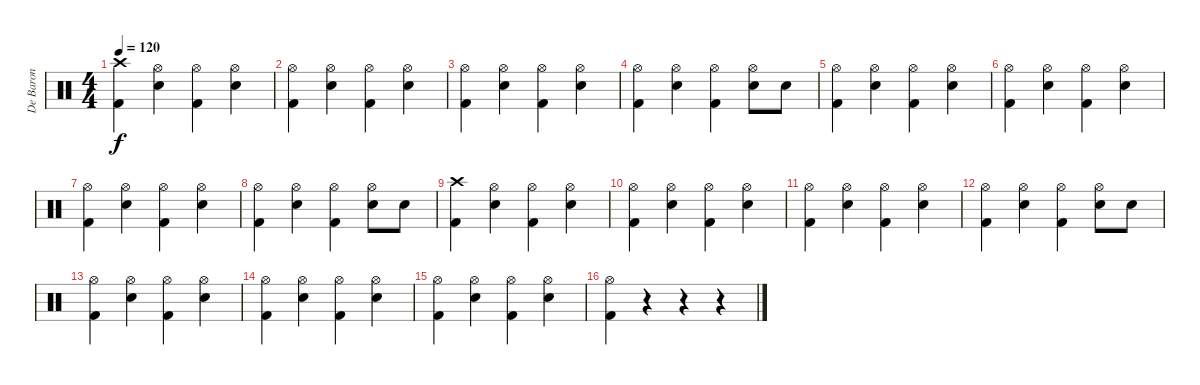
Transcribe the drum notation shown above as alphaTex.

\track ("De Baron" "De Baron") {instrument percussion}
\staff {score}
\articulation defaults
\ts (4 4)
\tempo 120
\clef neutral
\ks c
("Crash high (hit)" "Kick (hit) 2").4{dy f} ("Hi-Hat (open)" "Snare (hit) 2").4 ("Hi-Hat (open)" "Kick (hit) 2").4 ("Hi-Hat (open)" "Snare (hit) 2").4 |
("Hi-Hat (open)" "Kick (hit) 2").4 ("Hi-Hat (open)" "Snare (hit) 2").4 ("Hi-Hat (open)" "Kick (hit) 2").4 ("Hi-Hat (open)" "Snare (hit) 2").4 |
("Hi-Hat (open)" "Kick (hit) 2").4 ("Hi-Hat (open)" "Snare (hit) 2").4 ("Hi-Hat (open)" "Kick (hit) 2").4 ("Hi-Hat (open)" "Snare (hit) 2").4 |
("Hi-Hat (open)" "Kick (hit) 2").4 ("Hi-Hat (open)" "Snare (hit) 2").4 ("Hi-Hat (open)" "Kick (hit) 2").4 ("Hi-Hat (open)" "Snare (hit) 2").8 "Snare (hit) 2".8 |
("Hi-Hat (open)" "Kick (hit) 2").4 ("Hi-Hat (open)" "Snare (hit) 2").4 ("Hi-Hat (open)" "Kick (hit) 2").4 ("Hi-Hat (open)" "Snare (hit) 2").4 |
("Hi-Hat (open)" "Kick (hit) 2").4 ("Hi-Hat (open)" "Snare (hit) 2").4 ("Hi-Hat (open)" "Kick (hit) 2").4 ("Hi-Hat (open)" "Snare (hit) 2").4 |
("Hi-Hat (open)" "Kick (hit) 2").4 ("Hi-Hat (open)" "Snare (hit) 2").4 ("Hi-Hat (open)" "Kick (hit) 2").4 ("Hi-Hat (open)" "Snare (hit) 2").4 |
("Hi-Hat (open)" "Kick (hit) 2").4 ("Hi-Hat (open)" "Snare (hit) 2").4 ("Hi-Hat (open)" "Kick (hit) 2").4 ("Hi-Hat (open)" "Snare (hit) 2").8 "Snare (hit) 2".8 |
("Crash high (hit)" "Kick (hit) 2").4 ("Hi-Hat (open)" "Snare (hit) 2").4 ("Hi-Hat (open)" "Kick (hit) 2").4 ("Hi-Hat (open)" "Snare (hit) 2").4 |
("Hi-Hat (open)" "Kick (hit) 2").4 ("Hi-Hat (open)" "Snare (hit) 2").4 ("Hi-Hat (open)" "Kick (hit) 2").4 ("Hi-Hat (open)" "Snare (hit) 2").4 |
("Hi-Hat (open)" "Kick (hit) 2").4 ("Hi-Hat (open)" "Snare (hit) 2").4 ("Hi-Hat (open)" "Kick (hit) 2").4 ("Hi-Hat (open)" "Snare (hit) 2").4 |
("Hi-Hat (open)" "Kick (hit) 2").4 ("Hi-Hat (open)" "Snare (hit) 2").4 ("Hi-Hat (open)" "Kick (hit) 2").4 ("Hi-Hat (open)" "Snare (hit) 2").8 "Snare (hit) 2".8 |
("Hi-Hat (open)" "Kick (hit) 2").4 ("Hi-Hat (open)" "Snare (hit) 2").4 ("Hi-Hat (open)" "Kick (hit) 2").4 ("Hi-Hat (open)" "Snare (hit) 2").4 |
("Hi-Hat (open)" "Kick (hit) 2").4 ("Hi-Hat (open)" "Snare (hit) 2").4 ("Hi-Hat (open)" "Kick (hit) 2").4 ("Hi-Hat (open)" "Snare (hit) 2").4 |
("Hi-Hat (open)" "Kick (hit) 2").4 ("Hi-Hat (open)" "Snare (hit) 2").4 ("Hi-Hat (open)" "Kick (hit) 2").4 ("Hi-Hat (open)" "Snare (hit) 2").4 |
("Hi-Hat (open)" "Kick (hit) 2").4 r.4 r.4 r.4
